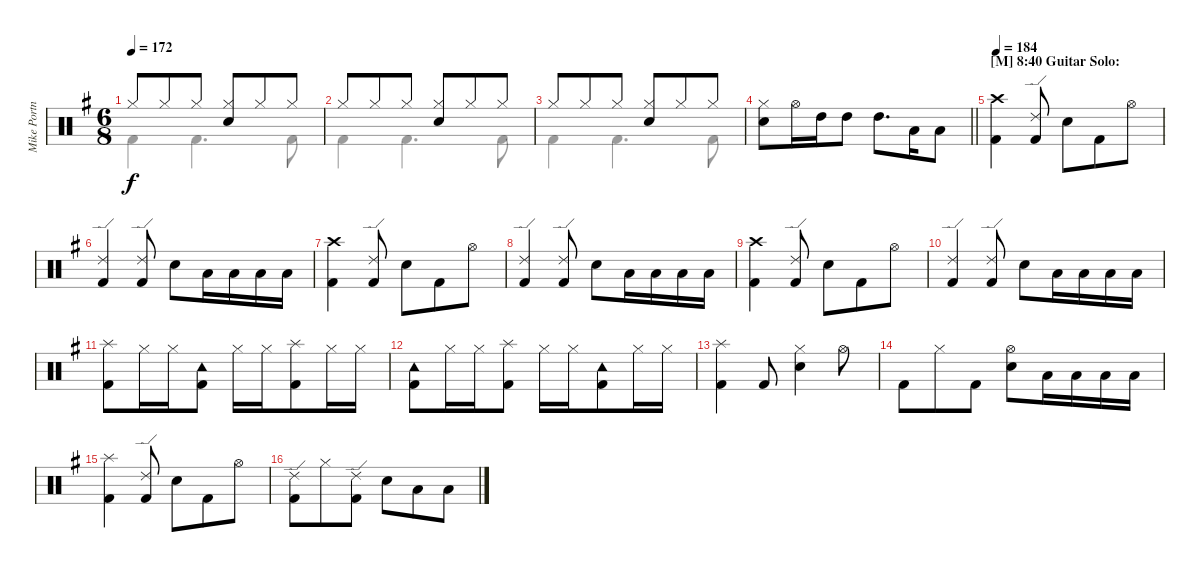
\track ("Mike Portnoy - Drum" "Mike Portn") {instrument percussion}
\staff {score}
\articulation defaults
\voice
\ts (6 8)
\tempo 172
\clef neutral
\ks g "Hi-Hat (closed)".8{dy f} "Hi-Hat (closed)".8 "Hi-Hat (closed)".8
("Hi-Hat (closed)" "Electric Snare (hit)").8 "Hi-Hat (closed)".8 "Hi-Hat (closed)".8 |
"Hi-Hat (closed)".8 "Hi-Hat (closed)".8 "Hi-Hat (closed)".8 ("Hi-Hat (closed)" "Electric Snare (hit)").8 "Hi-Hat (closed)".8 "Hi-Hat (closed)".8 |
"Hi-Hat (closed)".8 "Hi-Hat (closed)".8 "Hi-Hat (closed)".8 ("Hi-Hat (closed)" "Electric Snare (hit)").8 "Hi-Hat (closed)".8 "Hi-Hat (closed)".8 |
\barLineRight lightlight
("Hi-Hat (closed)" "Electric Snare (hit)").8 "Hi-Hat (open)".16 "High Tom (hit)".16 "High Tom (hit)".8 "High Tom (hit)".8{d} "Low Tom (hit)".16 "Low Tom (hit)".8 |
\section ("" "[M] 8:40 Guitar Solo:")
\tempo 184
("Crash high (hit)" "Kick (hit) 2").4 ("Ride (edge) 2" "Kick (hit) 2").8 "Electric Snare (hit)".8 "Kick (hit) 2".8 "Hi-Hat (open)".8 |
("Ride (edge) 2" "Kick (hit) 2").4 ("Ride (edge) 2" "Kick (hit) 2").8 "Electric Snare (hit)".8 "Low Tom (hit)".16 "Low Tom (hit)".16 "Low Tom (hit)".16 "Low Tom (hit)".16 |
("Crash high (hit)" "Kick (hit) 2").4 ("Ride (edge) 2" "Kick (hit) 2").8 "Electric Snare (hit)".8 "Kick (hit) 2".8 "Hi-Hat (open)".8 |
("Ride (edge) 2" "Kick (hit) 2").4 ("Ride (edge) 2" "Kick (hit) 2").8 "Electric Snare (hit)".8 "Low Tom (hit)".16 "Low Tom (hit)".16 "Low Tom (hit)".16 "Low Tom (hit)".16 |
("Crash high (hit)" "Kick (hit) 2").4 ("Ride (edge) 2" "Kick (hit) 2").8 "Electric Snare (hit)".8 "Kick (hit) 2".8 "Hi-Hat (open)".8 |
("Ride (edge) 2" "Kick (hit) 2").4 ("Ride (edge) 2" "Kick (hit) 2").8 "Electric Snare (hit)".8 "Low Tom (hit)".16 "Low Tom (hit)".16 "Low Tom (hit)".16 "Low Tom (hit)".16 |
("Splash (hit)" "Kick (hit) 2").8 "Hi-Hat (closed)".16 "Hi-Hat (closed)".16 ("Tambourine (hit)" "Kick (hit) 2").8 "Hi-Hat (closed)".16 "Hi-Hat (closed)".16 ("Splash (hit)" "Kick (hit) 2").8 "Hi-Hat (closed)".16 "Hi-Hat (closed)".16 |
("Tambourine (hit)" "Kick (hit) 2").8 "Hi-Hat (closed)".16 "Hi-Hat (closed)".16 ("Splash (hit)" "Kick (hit) 2").8 "Hi-Hat (closed)".16 "Hi-Hat (closed)".16 ("Tambourine (hit)" "Kick (hit) 2").8 "Hi-Hat (closed)".16 "Hi-Hat (closed)".16 |
("Splash (hit)" "Kick (hit) 2").4 "Kick (hit) 2".8 ("Hi-Hat (closed)" "Electric Snare (hit)").4 "Hi-Hat (open)".8 |
"Kick (hit) 2".8 "Hi-Hat (closed)".8 "Kick (hit) 2".8 ("Hi-Hat (open)" "Electric Snare (hit)").8 "Low Tom (hit)".16 "Low Tom (hit)".16 "Low Tom (hit)".16 "Low Tom (hit)".16 |
("Splash (hit)" "Kick (hit) 2").4 ("Ride (edge) 2" "Kick (hit) 2").8 "Electric Snare (hit)".8 "Kick (hit) 2".8 "Hi-Hat (open)".8 |
("Ride (edge) 2" "Kick (hit) 2").8 "Hi-Hat (closed)".8 ("Ride (edge) 2" "Kick (hit) 2").8 "Electric Snare (hit)".8 "Low Tom (hit)".8 "Low Tom (hit)".8
\voice
\clef neutral
\ottava regular
\simile none
\ks g "Kick (hit) 2".4{dy f} "Kick (hit) 2".4{d} "Kick (hit) 2".8
|
"Kick (hit) 2".4 "Kick (hit) 2".4{d} "Kick (hit) 2".8 |
"Kick (hit) 2".4 "Kick (hit) 2".4{d} "Kick (hit) 2".8 |
\barLineRight lightlight
|
|
|
|
|
|
|
|
|
|
|
|
